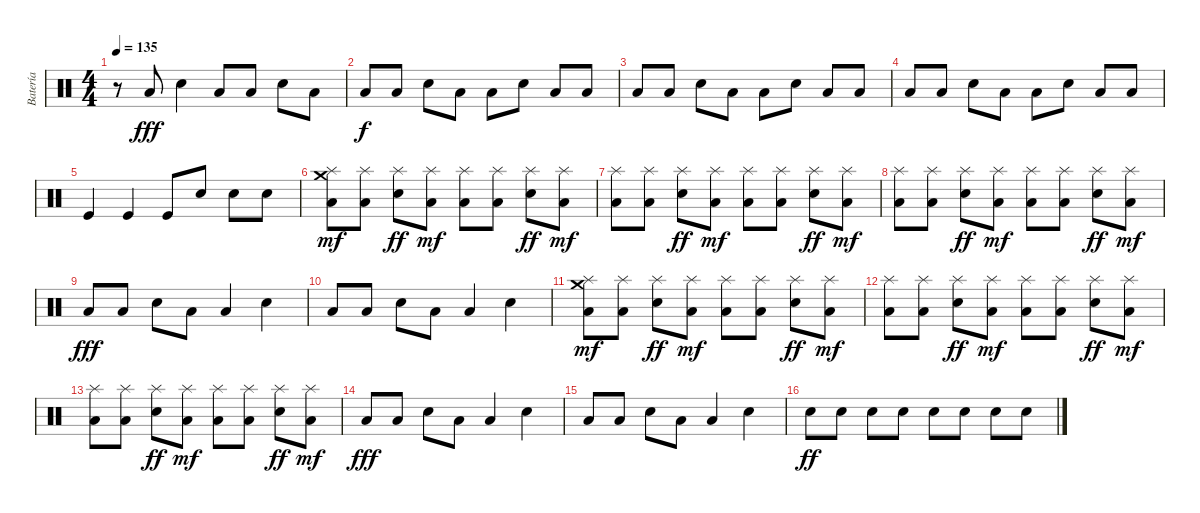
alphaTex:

\track ("Batería" "Batería") {instrument percussion}
\staff {score}
\articulation defaults
\ts (4 4)
\tempo 135
\clef neutral
\ks c
r.8{dy fff} "Low Floor Tom (hit)".8 "Electric Snare (hit)".4 "Low Floor Tom (hit)".8 "Low Floor Tom (hit)".8 "Electric Snare (hit)".8 "Low Floor Tom (hit)".8 |
"Low Floor Tom (hit)".8{dy f} "Low Floor Tom (hit)".8 "Electric Snare (hit)".8 "Low Floor Tom (hit)".8 "Low Floor Tom (hit)".8 "Electric Snare (hit)".8 "Low Floor Tom (hit)".8 "Low Floor Tom (hit)".8 |
"Low Floor Tom (hit)".8 "Low Floor Tom (hit)".8 "Electric Snare (hit)".8 "Low Floor Tom (hit)".8 "Low Floor Tom (hit)".8 "Electric Snare (hit)".8 "Low Floor Tom (hit)".8 "Low Floor Tom (hit)".8 |
"Low Floor Tom (hit)".8 "Low Floor Tom (hit)".8 "Electric Snare (hit)".8 "Low Floor Tom (hit)".8 "Low Floor Tom (hit)".8 "Electric Snare (hit)".8 "Low Floor Tom (hit)".8 "Low Floor Tom (hit)".8 |
"Kick (hit)".4 "Kick (hit)".4 "Kick (hit)".8 "Electric Snare (hit)".8 "Electric Snare (hit)".8 "Electric Snare (hit)".8 |
("Crash medium (hit)" "Splash (hit)" "Low Floor Tom (hit)").8{dy mf} ("Splash (hit)" "Low Floor Tom (hit)").8 ("Splash (hit)" "Electric Snare (hit)").8{dy ff} ("Splash (hit)" "Low Floor Tom (hit)").8{dy mf} ("Splash (hit)" "Low Floor Tom (hit)").8 ("Splash (hit)" "Low Floor Tom (hit)").8 ("Splash (hit)" "Electric Snare (hit)").8{dy ff} ("Splash (hit)" "Low Floor Tom (hit)").8{dy mf} |
("Splash (hit)" "Low Floor Tom (hit)").8 ("Splash (hit)" "Low Floor Tom (hit)").8 ("Splash (hit)" "Electric Snare (hit)").8{dy ff} ("Splash (hit)" "Low Floor Tom (hit)").8{dy mf} ("Splash (hit)" "Low Floor Tom (hit)").8 ("Splash (hit)" "Low Floor Tom (hit)").8 ("Splash (hit)" "Electric Snare (hit)").8{dy ff} ("Splash (hit)" "Low Floor Tom (hit)").8{dy mf} |
("Splash (hit)" "Low Floor Tom (hit)").8 ("Splash (hit)" "Low Floor Tom (hit)").8 ("Splash (hit)" "Electric Snare (hit)").8{dy ff} ("Splash (hit)" "Low Floor Tom (hit)").8{dy mf} ("Splash (hit)" "Low Floor Tom (hit)").8 ("Splash (hit)" "Low Floor Tom (hit)").8 ("Splash (hit)" "Electric Snare (hit)").8{dy ff} ("Splash (hit)" "Low Floor Tom (hit)").8{dy mf} |
"Low Floor Tom (hit)".8{dy fff} "Low Floor Tom (hit)".8 "Electric Snare (hit)".8 "Low Floor Tom (hit)".8 "Low Floor Tom (hit)".4 "Electric Snare (hit)".4 |
"Low Floor Tom (hit)".8 "Low Floor Tom (hit)".8 "Electric Snare (hit)".8 "Low Floor Tom (hit)".8 "Low Floor Tom (hit)".4 "Electric Snare (hit)".4 |
("Crash medium (hit)" "Splash (hit)" "Low Floor Tom (hit)").8{dy mf} ("Splash (hit)" "Low Floor Tom (hit)").8 ("Splash (hit)" "Electric Snare (hit)").8{dy ff} ("Splash (hit)" "Low Floor Tom (hit)").8{dy mf} ("Splash (hit)" "Low Floor Tom (hit)").8 ("Splash (hit)" "Low Floor Tom (hit)").8 ("Splash (hit)" "Electric Snare (hit)").8{dy ff} ("Splash (hit)" "Low Floor Tom (hit)").8{dy mf} |
("Splash (hit)" "Low Floor Tom (hit)").8 ("Splash (hit)" "Low Floor Tom (hit)").8 ("Splash (hit)" "Electric Snare (hit)").8{dy ff} ("Splash (hit)" "Low Floor Tom (hit)").8{dy mf} ("Splash (hit)" "Low Floor Tom (hit)").8 ("Splash (hit)" "Low Floor Tom (hit)").8 ("Splash (hit)" "Electric Snare (hit)").8{dy ff} ("Splash (hit)" "Low Floor Tom (hit)").8{dy mf} |
("Splash (hit)" "Low Floor Tom (hit)").8 ("Splash (hit)" "Low Floor Tom (hit)").8 ("Splash (hit)" "Electric Snare (hit)").8{dy ff} ("Splash (hit)" "Low Floor Tom (hit)").8{dy mf} ("Splash (hit)" "Low Floor Tom (hit)").8 ("Splash (hit)" "Low Floor Tom (hit)").8 ("Splash (hit)" "Electric Snare (hit)").8{dy ff} ("Splash (hit)" "Low Floor Tom (hit)").8{dy mf} |
"Low Floor Tom (hit)".8{dy fff} "Low Floor Tom (hit)".8 "Electric Snare (hit)".8 "Low Floor Tom (hit)".8 "Low Floor Tom (hit)".4 "Electric Snare (hit)".4 |
"Low Floor Tom (hit)".8 "Low Floor Tom (hit)".8 "Electric Snare (hit)".8 "Low Floor Tom (hit)".8 "Low Floor Tom (hit)".4 "Electric Snare (hit)".4 |
"Electric Snare (hit)".8{dy ff} "Electric Snare (hit)".8 "Electric Snare (hit)".8 "Electric Snare (hit)".8 "Electric Snare (hit)".8 "Electric Snare (hit)".8 "Electric Snare (hit)".8 "Electric Snare (hit)".8
